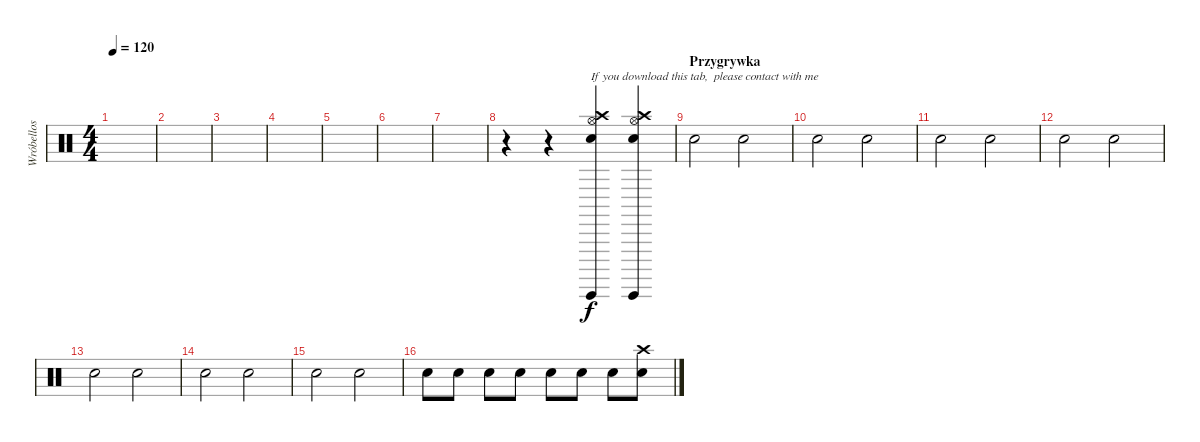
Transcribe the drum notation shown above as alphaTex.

\track ("Wróbellos " "Wróbellos ") {instrument percussion}
\staff {score}
\articulation defaults
\ts (4 4)
\tempo 120
\clef neutral
\ks c
|
|
|
|
|
|
|
r.4 r.4 ("Hi-Hat (open)" "Electric Snare (hit)" "Crash high (hit)" "Guiro (hit)").4{txt "If you download this tab,  please contact with me"} ("Hi-Hat (open)" "Electric Snare (hit)" "Crash high (hit)" "Guiro (hit)").4 |
\section ("" "Przygrywka")
"Electric Snare (hit)".2 "Electric Snare (hit)".2 |
"Electric Snare (hit)".2 "Electric Snare (hit)".2 |
"Electric Snare (hit)".2 "Electric Snare (hit)".2 |
"Electric Snare (hit)".2 "Electric Snare (hit)".2 |
"Electric Snare (hit)".2 "Electric Snare (hit)".2 |
"Electric Snare (hit)".2 "Electric Snare (hit)".2 |
"Electric Snare (hit)".2 "Electric Snare (hit)".2 |
"Electric Snare (hit)".8 "Electric Snare (hit)".8 "Electric Snare (hit)".8 "Electric Snare (hit)".8 "Electric Snare (hit)".8 "Electric Snare (hit)".8 "Electric Snare (hit)".8 ("Electric Snare (hit)" "Crash high (hit)").8
